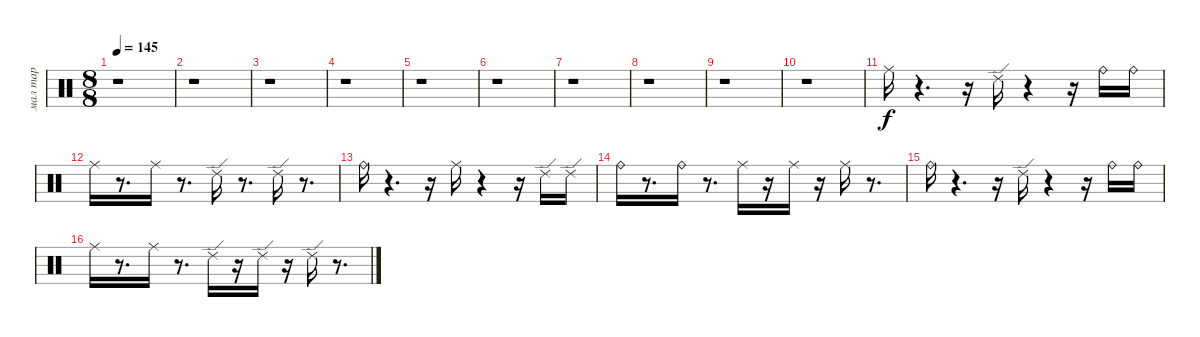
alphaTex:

\track ("мал тар" "мал тар") {instrument percussion}
\staff {score}
\articulation defaults
\ts (8 8)
\tempo 145
\clef neutral
\ks c
r.1{dy f} |
r.1 |
r.1 |
r.1 |
r.1 |
r.1 |
r.1 |
r.1 |
r.1 |
r.1 |
"Ride (middle)".16 r.4{d} r.16 "Ride (edge) 2".16 r.4 r.16 "Ride (bell)".16 "Ride (bell)".16 |
"Ride (middle)".16 r.8{d} "Ride (middle)".16 r.8{d} "Ride (edge) 2".16 r.8{d} "Ride (edge) 2".16 r.8{d} |
"Ride (bell)".16 r.4{d} r.16 "Ride (middle)".16 r.4 r.16 "Ride (edge) 2".16 "Ride (edge) 2".16 |
"Ride (bell)".16 r.8{d} "Ride (bell)".16 r.8{d} "Ride (middle)".16 r.16 "Ride (middle)".16 r.16 "Ride (middle)".16 r.8{d} |
"Ride (bell)".16 r.4{d} r.16 "Ride (edge) 2".16 r.4 r.16 "Ride (bell)".16 "Ride (bell)".16 |
"Ride (middle)".16 r.8{d} "Ride (middle)".16 r.8{d} "Ride (edge) 2".16 r.16 "Ride (edge) 2".16 r.16 "Ride (edge) 2".16 r.8{d}
